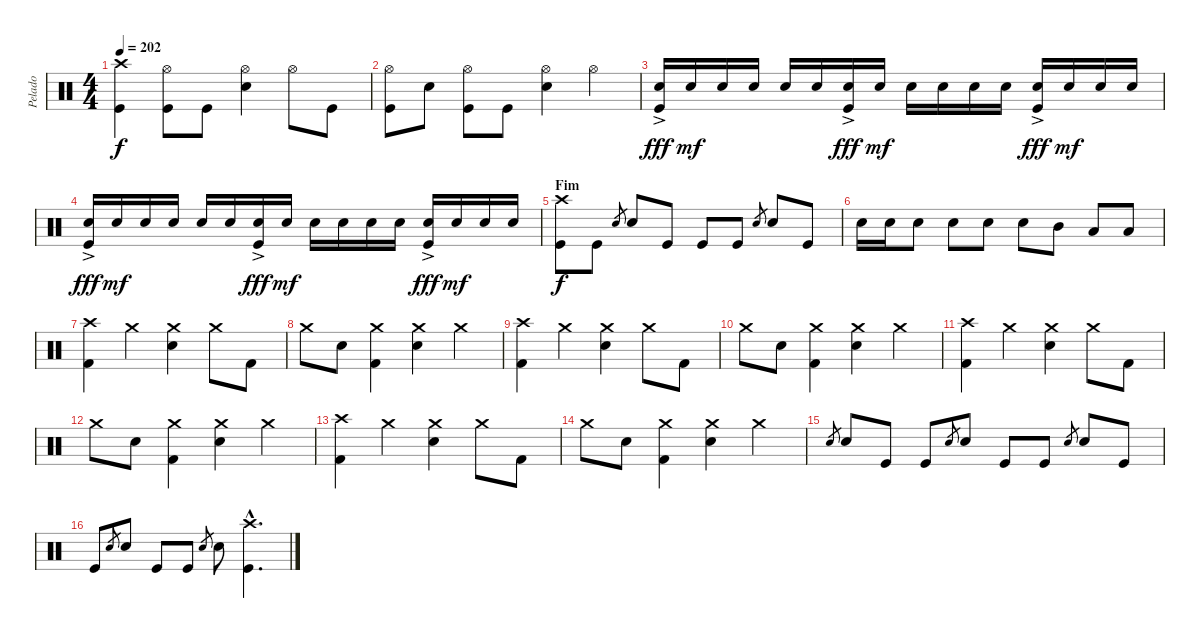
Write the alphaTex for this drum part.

\track ("Pelado" "Pelado") {instrument percussion}
\staff {score}
\articulation defaults
\ts (4 4)
\tempo 202
\clef neutral
\ks c
("Crash high (hit)" "Kick (hit)").4{dy f} ("Hi-Hat (open)" "Kick (hit)").8 "Kick (hit)".8 ("Hi-Hat (open)" "Electric Snare (hit)").4 "Hi-Hat (open)".8 "Kick (hit)".8 |
("Hi-Hat (open)" "Kick (hit)").8 "Electric Snare (hit)".8 ("Hi-Hat (open)" "Kick (hit)").8 "Kick (hit)".8 ("Hi-Hat (open)" "Electric Snare (hit)").4 "Hi-Hat (open)".4 |
("Electric Snare (hit)"{ac} "Kick (hit)").16{dy fff} "Electric Snare (hit)".16{dy mf} "Electric Snare (hit)".16 "Electric Snare (hit)".16 "Electric Snare (hit)".16 "Electric Snare (hit)".16 ("Electric Snare (hit)"{ac} "Kick (hit)").16{dy fff} "Electric Snare (hit)".16{dy mf} "Electric Snare (hit)".16 "Electric Snare (hit)".16 "Electric Snare (hit)".16 "Electric Snare (hit)".16 ("Electric Snare (hit)"{ac} "Kick (hit)").16{dy fff} "Electric Snare (hit)".16{dy mf} "Electric Snare (hit)".16 "Electric Snare (hit)".16 |
("Electric Snare (hit)"{ac} "Kick (hit)").16{dy fff} "Electric Snare (hit)".16{dy mf} "Electric Snare (hit)".16 "Electric Snare (hit)".16 "Electric Snare (hit)".16 "Electric Snare (hit)".16 ("Electric Snare (hit)"{ac} "Kick (hit)").16{dy fff} "Electric Snare (hit)".16{dy mf} "Electric Snare (hit)".16 "Electric Snare (hit)".16 "Electric Snare (hit)".16 "Electric Snare (hit)".16 ("Electric Snare (hit)"{ac} "Kick (hit)").16{dy fff} "Electric Snare (hit)".16{dy mf} "Electric Snare (hit)".16 "Electric Snare (hit)".16 |
\section ("" "Fim")
("Crash high (hit)" "Kick (hit)").8{dy f} "Kick (hit)".8 "Electric Snare (hit)".8{gr} "Electric Snare (hit)".8 "Kick (hit)".8 "Kick (hit)".8 "Kick (hit)".8 "Electric Snare (hit)".8{gr} "Electric Snare (hit)".8 "Kick (hit)".8 |
"Electric Snare (hit)".16 "Electric Snare (hit)".16 "Electric Snare (hit)".8 "Electric Snare (hit)".8 "Electric Snare (hit)".8 "Electric Snare (hit)".8 "Mid Tom (hit)".8 "Low Tom (hit)".8 "Low Tom (hit)".8 |
("Crash high (hit)" "Kick (hit) 2").4 "Crash medium (hit)".4 ("Crash medium (hit)" "Electric Snare (hit)").4 "Crash medium (hit)".8 "Kick (hit) 2".8 |
"Crash medium (hit)".8 "Electric Snare (hit)".8 ("Crash medium (hit)" "Kick (hit) 2").4 ("Crash medium (hit)" "Electric Snare (hit)").4 "Crash medium (hit)".4 |
("Crash high (hit)" "Kick (hit) 2").4 "Crash medium (hit)".4 ("Crash medium (hit)" "Electric Snare (hit)").4 "Crash medium (hit)".8 "Kick (hit) 2".8 |
"Crash medium (hit)".8 "Electric Snare (hit)".8 ("Crash medium (hit)" "Kick (hit) 2").4 ("Crash medium (hit)" "Electric Snare (hit)").4 "Crash medium (hit)".4 |
("Crash high (hit)" "Kick (hit) 2").4 "Crash medium (hit)".4 ("Crash medium (hit)" "Electric Snare (hit)").4 "Crash medium (hit)".8 "Kick (hit) 2".8 |
"Crash medium (hit)".8 "Electric Snare (hit)".8 ("Crash medium (hit)" "Kick (hit) 2").4 ("Crash medium (hit)" "Electric Snare (hit)").4 "Crash medium (hit)".4 |
("Crash high (hit)" "Kick (hit) 2").4 "Crash medium (hit)".4 ("Crash medium (hit)" "Electric Snare (hit)").4 "Crash medium (hit)".8 "Kick (hit) 2".8 |
"Crash medium (hit)".8 "Electric Snare (hit)".8 ("Crash medium (hit)" "Kick (hit) 2").4 ("Crash medium (hit)" "Electric Snare (hit)").4 "Crash medium (hit)".4 |
"Electric Snare (hit)".8{gr} "Electric Snare (hit)".8 "Kick (hit)".8 "Kick (hit)".8 "Electric Snare (hit)".8{gr} "Electric Snare (hit)".8 "Kick (hit)".8 "Kick (hit)".8 "Electric Snare (hit)".8{gr} "Electric Snare (hit)".8 "Kick (hit)".8 |
"Kick (hit)".8 "Electric Snare (hit)".8{gr} "Electric Snare (hit)".8 "Kick (hit)".8 "Kick (hit)".8 "Electric Snare (hit)".8{gr} "Electric Snare (hit)".8 ("Crash high (hit)"{hac} "Kick (hit)"{hac}).4{d}
